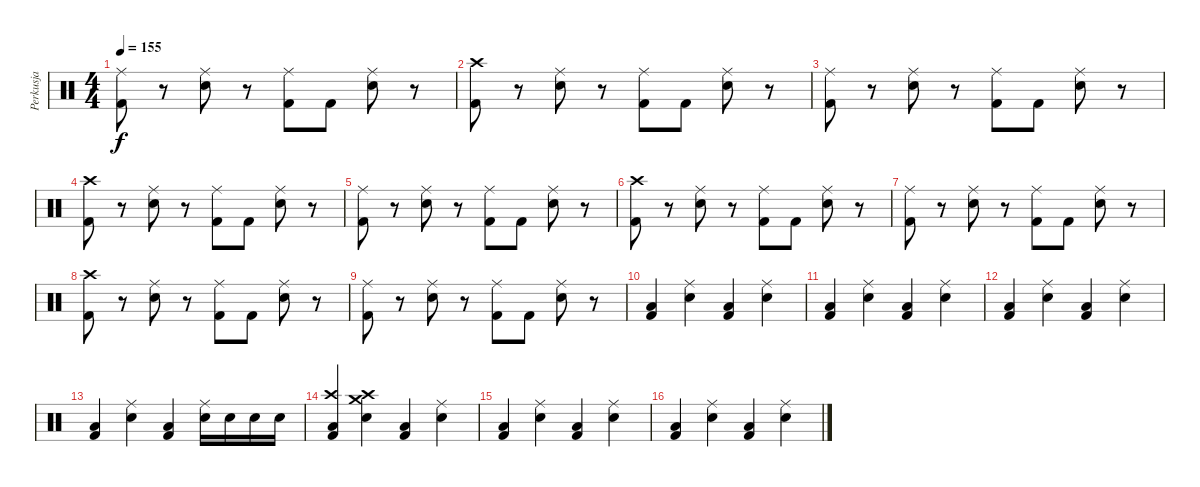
\track ("Perkusja" "Perkusja") {instrument percussion}
\staff {score}
\articulation defaults
\ts (4 4)
\tempo 155
\clef neutral
\ks c
("Ride (middle)" "Kick (hit) 2").8{dy f} r.8 ("Ride (middle)" "Electric Snare (hit)").8 r.8 ("Ride (middle)" "Kick (hit) 2").8 "Kick (hit) 2".8 ("Ride (middle)" "Electric Snare (hit)").8 r.8 |
("Crash high (hit)" "Kick (hit) 2").8 r.8 ("Ride (middle)" "Electric Snare (hit)").8 r.8 ("Ride (middle)" "Kick (hit) 2").8 "Kick (hit) 2".8 ("Ride (middle)" "Electric Snare (hit)").8 r.8 |
("Ride (middle)" "Kick (hit) 2").8 r.8 ("Ride (middle)" "Electric Snare (hit)").8 r.8 ("Ride (middle)" "Kick (hit) 2").8 "Kick (hit) 2".8 ("Ride (middle)" "Electric Snare (hit)").8 r.8 |
("Crash high (hit)" "Kick (hit) 2").8 r.8 ("Ride (middle)" "Electric Snare (hit)").8 r.8 ("Ride (middle)" "Kick (hit) 2").8 "Kick (hit) 2".8 ("Ride (middle)" "Electric Snare (hit)").8 r.8 |
("Ride (middle)" "Kick (hit) 2").8 r.8 ("Ride (middle)" "Electric Snare (hit)").8 r.8 ("Ride (middle)" "Kick (hit) 2").8 "Kick (hit) 2".8 ("Ride (middle)" "Electric Snare (hit)").8 r.8 |
("Crash high (hit)" "Kick (hit) 2").8 r.8 ("Ride (middle)" "Electric Snare (hit)").8 r.8 ("Ride (middle)" "Kick (hit) 2").8 "Kick (hit) 2".8 ("Ride (middle)" "Electric Snare (hit)").8 r.8 |
("Ride (middle)" "Kick (hit) 2").8 r.8 ("Ride (middle)" "Electric Snare (hit)").8 r.8 ("Ride (middle)" "Kick (hit) 2").8 "Kick (hit) 2".8 ("Ride (middle)" "Electric Snare (hit)").8 r.8 |
("Crash high (hit)" "Kick (hit) 2").8 r.8 ("Ride (middle)" "Electric Snare (hit)").8 r.8 ("Ride (middle)" "Kick (hit) 2").8 "Kick (hit) 2".8 ("Ride (middle)" "Electric Snare (hit)").8 r.8 |
("Ride (middle)" "Kick (hit) 2").8 r.8 ("Ride (middle)" "Electric Snare (hit)").8 r.8 ("Ride (middle)" "Kick (hit) 2").8 "Kick (hit) 2".8 ("Ride (middle)" "Electric Snare (hit)").8 r.8 |
("Low Floor Tom (hit)" "Kick (hit) 2").4 ("Ride (middle)" "Electric Snare (hit)").4 ("Low Floor Tom (hit)" "Kick (hit) 2").4 ("Ride (middle)" "Electric Snare (hit)").4 |
("Low Floor Tom (hit)" "Kick (hit) 2").4 ("Ride (middle)" "Electric Snare (hit)").4 ("Low Floor Tom (hit)" "Kick (hit) 2").4 ("Ride (middle)" "Electric Snare (hit)").4 |
("Low Floor Tom (hit)" "Kick (hit) 2").4 ("Ride (middle)" "Electric Snare (hit)").4 ("Low Floor Tom (hit)" "Kick (hit) 2").4 ("Ride (middle)" "Electric Snare (hit)").4 |
("Low Floor Tom (hit)" "Kick (hit) 2").4 ("Ride (middle)" "Electric Snare (hit)").4 ("Low Floor Tom (hit)" "Kick (hit) 2").4 ("Ride (middle)" "Electric Snare (hit)").16 "Electric Snare (hit)".16 "Electric Snare (hit)".16 "Electric Snare (hit)".16 |
("Crash high (hit)" "Low Floor Tom (hit)" "Kick (hit) 2").4 ("Crash high (hit)" "Crash medium (hit)" "Electric Snare (hit)").4 ("Low Floor Tom (hit)" "Kick (hit) 2").4 ("Ride (middle)" "Electric Snare (hit)").4 |
("Low Floor Tom (hit)" "Kick (hit) 2").4 ("Ride (middle)" "Electric Snare (hit)").4 ("Low Floor Tom (hit)" "Kick (hit) 2").4 ("Ride (middle)" "Electric Snare (hit)").4 |
("Low Floor Tom (hit)" "Kick (hit) 2").4 ("Ride (middle)" "Electric Snare (hit)").4 ("Low Floor Tom (hit)" "Kick (hit) 2").4 ("Ride (middle)" "Electric Snare (hit)").4
